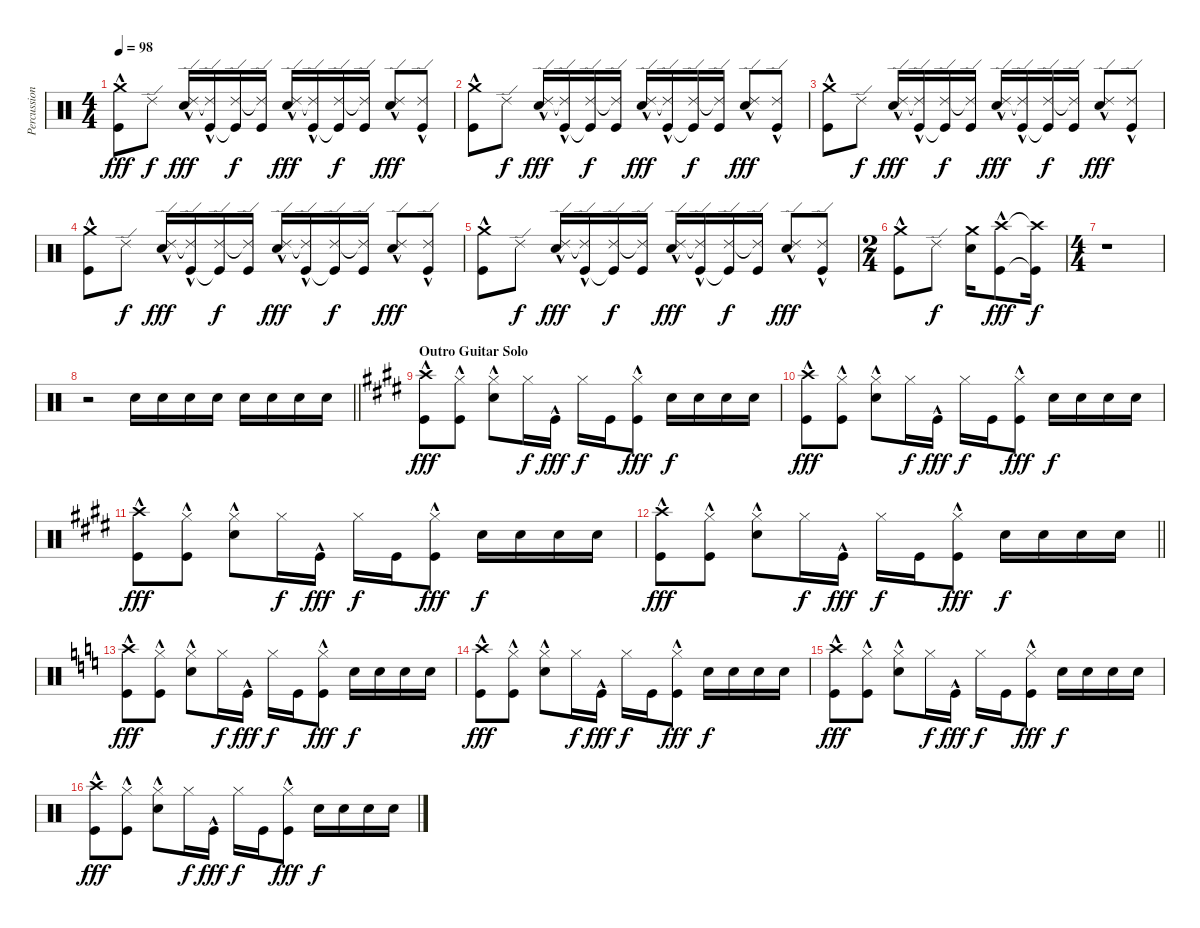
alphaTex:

\track ("Percussion -- Joey Kramer" "Percussion") {instrument percussion}
\staff {score}
\articulation defaults
\ts (4 4)
\tempo 98
\clef neutral
\ks c
("Crash medium (hit)"{hac} "Kick (hit)"{hac}).8{dy fff} "Ride (edge) 2".8{dy f} ("Ride (edge) 2" "Snare (hit) 2"{hac}).16{dy fff} ("Ride (edge) 2"{t} "Kick (hit)"{hac}).16 ("Ride (edge) 2" "Kick (hit)"{t}).16{dy f} ("Ride (edge) 2"{t} "Kick (hit)").16 ("Ride (edge) 2" "Snare (hit) 2"{hac}).16{dy fff} ("Ride (edge) 2"{t} "Kick (hit)"{hac}).16 ("Ride (edge) 2" "Kick (hit)"{t}).16{dy f} ("Ride (edge) 2"{t} "Kick (hit)").16 ("Ride (edge) 2" "Snare (hit) 2"{hac}).8{dy fff} ("Ride (edge) 2" "Kick (hit)"{hac}).8 |
("Crash medium (hit)"{hac} "Kick (hit)"{hac}).8 "Ride (edge) 2".8{dy f} ("Ride (edge) 2" "Snare (hit) 2"{hac}).16{dy fff} ("Ride (edge) 2"{t} "Kick (hit)"{hac}).16 ("Ride (edge) 2" "Kick (hit)"{t}).16{dy f} ("Ride (edge) 2"{t} "Kick (hit)").16 ("Ride (edge) 2" "Snare (hit) 2"{hac}).16{dy fff} ("Ride (edge) 2"{t} "Kick (hit)"{hac}).16 ("Ride (edge) 2" "Kick (hit)"{t}).16{dy f} ("Ride (edge) 2"{t} "Kick (hit)").16 ("Ride (edge) 2" "Snare (hit) 2"{hac}).8{dy fff} ("Ride (edge) 2" "Kick (hit)"{hac}).8 |
("Crash medium (hit)"{hac} "Kick (hit)"{hac}).8 "Ride (edge) 2".8{dy f} ("Ride (edge) 2" "Snare (hit) 2"{hac}).16{dy fff} ("Ride (edge) 2"{t} "Kick (hit)"{hac}).16 ("Ride (edge) 2" "Kick (hit)"{t}).16{dy f} ("Ride (edge) 2"{t} "Kick (hit)").16 ("Ride (edge) 2" "Snare (hit) 2"{hac}).16{dy fff} ("Ride (edge) 2"{t} "Kick (hit)"{hac}).16 ("Ride (edge) 2" "Kick (hit)"{t}).16{dy f} ("Ride (edge) 2"{t} "Kick (hit)").16 ("Ride (edge) 2" "Snare (hit) 2"{hac}).8{dy fff} ("Ride (edge) 2" "Kick (hit)"{hac}).8 |
("Crash medium (hit)"{hac} "Kick (hit)"{hac}).8 "Ride (edge) 2".8{dy f} ("Ride (edge) 2" "Snare (hit) 2"{hac}).16{dy fff} ("Ride (edge) 2"{t} "Kick (hit)"{hac}).16 ("Ride (edge) 2" "Kick (hit)"{t}).16{dy f} ("Ride (edge) 2"{t} "Kick (hit)").16 ("Ride (edge) 2" "Snare (hit) 2"{hac}).16{dy fff} ("Ride (edge) 2"{t} "Kick (hit)"{hac}).16 ("Ride (edge) 2" "Kick (hit)"{t}).16{dy f} ("Ride (edge) 2"{t} "Kick (hit)").16 ("Ride (edge) 2" "Snare (hit) 2"{hac}).8{dy fff} ("Ride (edge) 2" "Kick (hit)"{hac}).8 |
("Crash medium (hit)"{hac} "Kick (hit)"{hac}).8 "Ride (edge) 2".8{dy f} ("Ride (edge) 2" "Snare (hit) 2"{hac}).16{dy fff} ("Ride (edge) 2"{t} "Kick (hit)"{hac}).16 ("Ride (edge) 2" "Kick (hit)"{t}).16{dy f} ("Ride (edge) 2"{t} "Kick (hit)").16 ("Ride (edge) 2" "Snare (hit) 2"{hac}).16{dy fff} ("Ride (edge) 2"{t} "Kick (hit)"{hac}).16 ("Ride (edge) 2" "Kick (hit)"{t}).16{dy f} ("Ride (edge) 2"{t} "Kick (hit)").16 ("Ride (edge) 2" "Snare (hit) 2"{hac}).8{dy fff} ("Ride (edge) 2" "Kick (hit)"{hac}).8 |
\ts (2 4)
("Crash medium (hit)"{hac} "Kick (hit)"{hac}).8 "Ride (edge) 2".8{dy f} ("Crash medium (hit)" "Snare (hit) 2").16 ("Crash high (hit)" "Kick (hit)"{hac}).8{dy fff} ("Crash high (hit)"{t} "Kick (hit)"{t}).16{dy f} |
\ts (4 4)
r.1 |
\barLineRight lightlight
r.2 "Snare (hit) 2".16 "Snare (hit) 2".16 "Snare (hit) 2".16 "Snare (hit) 2".16 "Snare (hit) 2".16 "Snare (hit) 2".16 "Snare (hit) 2".16 "Snare (hit) 2".16 |
\section ("" "Outro Guitar Solo")
\ks e
("Crash high (hit)"{hac} "Kick (hit)"{hac}).8{dy fff} ("Hi-Hat (closed)" "Kick (hit)"{hac}).8 ("Hi-Hat (closed)" "Snare (hit) 2"{hac}).8 "Hi-Hat (closed)".16{dy f} "Kick (hit)"{hac}.16{dy fff} "Hi-Hat (closed)".16{dy f} "Kick (hit)".16 ("Hi-Hat (closed)" "Kick (hit)"{hac}).8{dy fff} "Snare (hit) 2".16{dy f} "Snare (hit) 2".16 "Snare (hit) 2".16 "Snare (hit) 2".16 |
\ks c#minor
("Crash high (hit)"{hac} "Kick (hit)"{hac}).8{dy fff} ("Hi-Hat (closed)" "Kick (hit)"{hac}).8 ("Hi-Hat (closed)" "Snare (hit) 2"{hac}).8 "Hi-Hat (closed)".16{dy f} "Kick (hit)"{hac}.16{dy fff} "Hi-Hat (closed)".16{dy f} "Kick (hit)".16 ("Hi-Hat (closed)" "Kick (hit)"{hac}).8{dy fff} "Snare (hit) 2".16{dy f} "Snare (hit) 2".16 "Snare (hit) 2".16 "Snare (hit) 2".16 |
("Crash high (hit)"{hac} "Kick (hit)"{hac}).8{dy fff} ("Hi-Hat (closed)" "Kick (hit)"{hac}).8 ("Hi-Hat (closed)" "Snare (hit) 2"{hac}).8 "Hi-Hat (closed)".16{dy f} "Kick (hit)"{hac}.16{dy fff} "Hi-Hat (closed)".16{dy f} "Kick (hit)".16 ("Hi-Hat (closed)" "Kick (hit)"{hac}).8{dy fff} "Snare (hit) 2".16{dy f} "Snare (hit) 2".16 "Snare (hit) 2".16 "Snare (hit) 2".16 |
\barLineRight lightlight
("Crash high (hit)"{hac} "Kick (hit)"{hac}).8{dy fff} ("Hi-Hat (closed)" "Kick (hit)"{hac}).8 ("Hi-Hat (closed)" "Snare (hit) 2"{hac}).8 "Hi-Hat (closed)".16{dy f} "Kick (hit)"{hac}.16{dy fff} "Hi-Hat (closed)".16{dy f} "Kick (hit)".16 ("Hi-Hat (closed)" "Kick (hit)"{hac}).8{dy fff} "Snare (hit) 2".16{dy f} "Snare (hit) 2".16 "Snare (hit) 2".16 "Snare (hit) 2".16 |
\ks c
("Crash high (hit)"{hac} "Kick (hit)"{hac}).8{dy fff} ("Hi-Hat (closed)" "Kick (hit)"{hac}).8 ("Hi-Hat (closed)" "Snare (hit) 2"{hac}).8 "Hi-Hat (closed)".16{dy f} "Kick (hit)"{hac}.16{dy fff} "Hi-Hat (closed)".16{dy f} "Kick (hit)".16 ("Hi-Hat (closed)" "Kick (hit)"{hac}).8{dy fff} "Snare (hit) 2".16{dy f} "Snare (hit) 2".16 "Snare (hit) 2".16 "Snare (hit) 2".16 |
("Crash high (hit)"{hac} "Kick (hit)"{hac}).8{dy fff} ("Hi-Hat (closed)" "Kick (hit)"{hac}).8 ("Hi-Hat (closed)" "Snare (hit) 2"{hac}).8 "Hi-Hat (closed)".16{dy f} "Kick (hit)"{hac}.16{dy fff} "Hi-Hat (closed)".16{dy f} "Kick (hit)".16 ("Hi-Hat (closed)" "Kick (hit)"{hac}).8{dy fff} "Snare (hit) 2".16{dy f} "Snare (hit) 2".16 "Snare (hit) 2".16 "Snare (hit) 2".16 |
("Crash high (hit)"{hac} "Kick (hit)"{hac}).8{dy fff} ("Hi-Hat (closed)" "Kick (hit)"{hac}).8 ("Hi-Hat (closed)" "Snare (hit) 2"{hac}).8 "Hi-Hat (closed)".16{dy f} "Kick (hit)"{hac}.16{dy fff} "Hi-Hat (closed)".16{dy f} "Kick (hit)".16 ("Hi-Hat (closed)" "Kick (hit)"{hac}).8{dy fff} "Snare (hit) 2".16{dy f} "Snare (hit) 2".16 "Snare (hit) 2".16 "Snare (hit) 2".16 |
("Crash high (hit)"{hac} "Kick (hit)"{hac}).8{dy fff} ("Hi-Hat (closed)" "Kick (hit)"{hac}).8 ("Hi-Hat (closed)" "Snare (hit) 2"{hac}).8 "Hi-Hat (closed)".16{dy f} "Kick (hit)"{hac}.16{dy fff} "Hi-Hat (closed)".16{dy f} "Kick (hit)".16 ("Hi-Hat (closed)" "Kick (hit)"{hac}).8{dy fff} "Snare (hit) 2".16{dy f} "Snare (hit) 2".16 "Snare (hit) 2".16 "Snare (hit) 2".16
